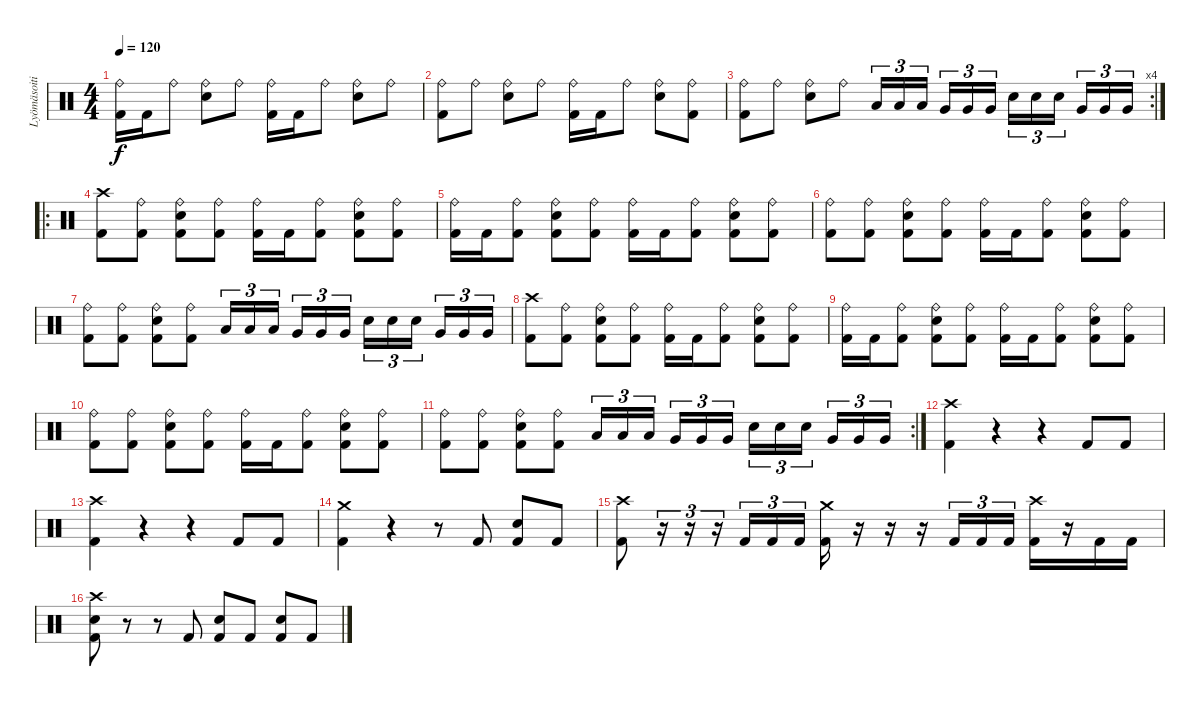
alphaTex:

\track ("Lyömäsoitin" "Lyömäsoiti") {instrument percussion}
\staff {score}
\articulation defaults
\ts (4 4)
\tempo 120
\clef neutral
\ks c
("Ride (bell)" "Kick (hit) 2").16{dy f} "Kick (hit) 2".16 "Ride (bell)".8 ("Ride (bell)" "Electric Snare (hit)").8 "Ride (bell)".8 ("Ride (bell)" "Kick (hit) 2").16 "Kick (hit) 2".16 "Ride (bell)".8 ("Ride (bell)" "Electric Snare (hit)").8 "Ride (bell)".8 |
("Ride (bell)" "Kick (hit) 2").8 "Ride (bell)".8 ("Ride (bell)" "Electric Snare (hit)").8 "Ride (bell)".8 ("Ride (bell)" "Kick (hit) 2").16 "Kick (hit) 2".16 "Ride (bell)".8 ("Ride (bell)" "Electric Snare (hit)").8 ("Ride (bell)" "Kick (hit) 2").8 |
\rc 4
("Ride (bell)" "Kick (hit) 2").8 "Ride (bell)".8 ("Ride (bell)" "Electric Snare (hit)").8 "Ride (bell)".8 "Low Tom (hit)".16{tu (3 2)} "Low Tom (hit)".16{tu (3 2)} "Low Tom (hit)".16{tu (3 2) beam splitsecondary} "Very Low Tom (hit)".16{tu (3 2)} "Very Low Tom (hit)".16{tu (3 2)} "Very Low Tom (hit)".16{tu (3 2)} "Electric Snare (hit)".16{tu (3 2)} "Electric Snare (hit)".16{tu (3 2)} "Electric Snare (hit)".16{tu (3 2) beam splitsecondary} "Very Low Tom (hit)".16{tu (3 2)} "Very Low Tom (hit)".16{tu (3 2)} "Very Low Tom (hit)".16{tu (3 2)} |
\ro
("Crash high (hit)" "Kick (hit) 2").8 ("Ride (bell)" "Kick (hit) 2").8 ("Ride (bell)" "Electric Snare (hit)" "Kick (hit) 2").8 ("Ride (bell)" "Kick (hit) 2").8 ("Ride (bell)" "Kick (hit) 2").16 "Kick (hit) 2".16 ("Ride (bell)" "Kick (hit) 2").8 ("Ride (bell)" "Electric Snare (hit)" "Kick (hit) 2").8 ("Ride (bell)" "Kick (hit) 2").8 |
("Ride (bell)" "Kick (hit) 2").16 "Kick (hit) 2".16 ("Ride (bell)" "Kick (hit) 2").8 ("Ride (bell)" "Electric Snare (hit)" "Kick (hit) 2").8 ("Ride (bell)" "Kick (hit) 2").8 ("Ride (bell)" "Kick (hit) 2").16 "Kick (hit) 2".16 ("Ride (bell)" "Kick (hit) 2").8 ("Ride (bell)" "Electric Snare (hit)" "Kick (hit) 2").8 ("Ride (bell)" "Kick (hit) 2").8 |
("Ride (bell)" "Kick (hit) 2").8 ("Ride (bell)" "Kick (hit) 2").8 ("Ride (bell)" "Electric Snare (hit)" "Kick (hit) 2").8 ("Ride (bell)" "Kick (hit) 2").8 ("Ride (bell)" "Kick (hit) 2").16 "Kick (hit) 2".16 ("Ride (bell)" "Kick (hit) 2").8 ("Ride (bell)" "Electric Snare (hit)" "Kick (hit) 2").8 ("Ride (bell)" "Kick (hit) 2").8 |
("Ride (bell)" "Kick (hit) 2").8 ("Ride (bell)" "Kick (hit) 2").8 ("Ride (bell)" "Electric Snare (hit)" "Kick (hit) 2").8 ("Ride (bell)" "Kick (hit) 2").8 "Low Tom (hit)".16{tu (3 2)} "Low Tom (hit)".16{tu (3 2)} "Low Tom (hit)".16{tu (3 2) beam splitsecondary} "Very Low Tom (hit)".16{tu (3 2)} "Very Low Tom (hit)".16{tu (3 2)} "Very Low Tom (hit)".16{tu (3 2)} "Electric Snare (hit)".16{tu (3 2)} "Electric Snare (hit)".16{tu (3 2)} "Electric Snare (hit)".16{tu (3 2) beam splitsecondary} "Very Low Tom (hit)".16{tu (3 2)} "Very Low Tom (hit)".16{tu (3 2)} "Very Low Tom (hit)".16{tu (3 2)} |
("Crash high (hit)" "Kick (hit) 2").8 ("Ride (bell)" "Kick (hit) 2").8 ("Ride (bell)" "Electric Snare (hit)" "Kick (hit) 2").8 ("Ride (bell)" "Kick (hit) 2").8 ("Ride (bell)" "Kick (hit) 2").16 "Kick (hit) 2".16 ("Ride (bell)" "Kick (hit) 2").8 ("Ride (bell)" "Electric Snare (hit)" "Kick (hit) 2").8 ("Ride (bell)" "Kick (hit) 2").8 |
("Ride (bell)" "Kick (hit) 2").16 "Kick (hit) 2".16 ("Ride (bell)" "Kick (hit) 2").8 ("Ride (bell)" "Electric Snare (hit)" "Kick (hit) 2").8 ("Ride (bell)" "Kick (hit) 2").8 ("Ride (bell)" "Kick (hit) 2").16 "Kick (hit) 2".16 ("Ride (bell)" "Kick (hit) 2").8 ("Ride (bell)" "Electric Snare (hit)" "Kick (hit) 2").8 ("Ride (bell)" "Kick (hit) 2").8 |
("Ride (bell)" "Kick (hit) 2").8 ("Ride (bell)" "Kick (hit) 2").8 ("Ride (bell)" "Electric Snare (hit)" "Kick (hit) 2").8 ("Ride (bell)" "Kick (hit) 2").8 ("Ride (bell)" "Kick (hit) 2").16 "Kick (hit) 2".16 ("Ride (bell)" "Kick (hit) 2").8 ("Ride (bell)" "Electric Snare (hit)" "Kick (hit) 2").8 ("Ride (bell)" "Kick (hit) 2").8 |
\rc 2
("Ride (bell)" "Kick (hit) 2").8 ("Ride (bell)" "Kick (hit) 2").8 ("Ride (bell)" "Electric Snare (hit)" "Kick (hit) 2").8 ("Ride (bell)" "Kick (hit) 2").8 "Low Tom (hit)".16{tu (3 2)} "Low Tom (hit)".16{tu (3 2)} "Low Tom (hit)".16{tu (3 2) beam splitsecondary} "Very Low Tom (hit)".16{tu (3 2)} "Very Low Tom (hit)".16{tu (3 2)} "Very Low Tom (hit)".16{tu (3 2)} "Electric Snare (hit)".16{tu (3 2)} "Electric Snare (hit)".16{tu (3 2)} "Electric Snare (hit)".16{tu (3 2) beam splitsecondary} "Very Low Tom (hit)".16{tu (3 2)} "Very Low Tom (hit)".16{tu (3 2)} "Very Low Tom (hit)".16{tu (3 2)} |
("Crash high (hit)" "Kick (hit) 2").4 r.4 r.4 "Kick (hit) 2".8 "Kick (hit) 2".8 |
("Crash high (hit)" "Kick (hit) 2").4 r.4 r.4 "Kick (hit) 2".8 "Kick (hit) 2".8 |
("Crash medium (hit)" "Kick (hit) 2").4 r.4 r.8 "Kick (hit) 2".8 ("Electric Snare (hit)" "Kick (hit) 2").8 "Kick (hit) 2".8 |
("Crash high (hit)" "Kick (hit) 2").8 r.16{tu (3 2)} r.16{tu (3 2)} r.16{tu (3 2)} "Kick (hit) 2".16{tu (3 2)} "Kick (hit) 2".16{tu (3 2)} "Kick (hit) 2".16{tu (3 2) beam splitsecondary} ("Crash medium (hit)" "Kick (hit) 2").16 r.16 r.16 r.16 "Kick (hit) 2".16{tu (3 2)} "Kick (hit) 2".16{tu (3 2)} "Kick (hit) 2".16{tu (3 2)} ("Crash high (hit)" "Kick (hit) 2").16 r.16 "Kick (hit) 2".16 "Kick (hit) 2".16 |
("Crash high (hit)" "Electric Snare (hit)" "Kick (hit) 2").8 r.8 r.8 "Kick (hit) 2".8 ("Electric Snare (hit)" "Kick (hit) 2").8 "Kick (hit) 2".8 ("Electric Snare (hit)" "Kick (hit) 2").8 "Kick (hit) 2".8
